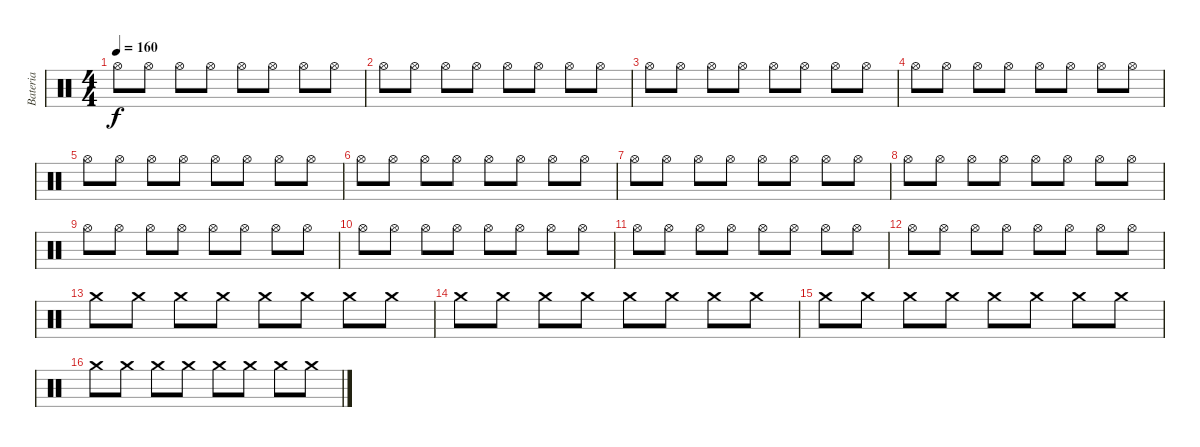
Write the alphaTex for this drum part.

\track ("Bateria" "Bateria") {instrument percussion}
\staff {score}
\articulation defaults
\ts (4 4)
\tempo 160
\clef neutral
\ks c "Hi-Hat (open)".8{dy f} "Hi-Hat (open)".8 "Hi-Hat (open)".8 "Hi-Hat (open)".8 "Hi-Hat (open)".8 "Hi-Hat (open)".8 "Hi-Hat (open)".8 "Hi-Hat (open)".8
|
"Hi-Hat (open)".8 "Hi-Hat (open)".8 "Hi-Hat (open)".8 "Hi-Hat (open)".8 "Hi-Hat (open)".8 "Hi-Hat (open)".8 "Hi-Hat (open)".8 "Hi-Hat (open)".8 |
"Hi-Hat (open)".8 "Hi-Hat (open)".8 "Hi-Hat (open)".8 "Hi-Hat (open)".8 "Hi-Hat (open)".8 "Hi-Hat (open)".8 "Hi-Hat (open)".8 "Hi-Hat (open)".8 |
"Hi-Hat (open)".8 "Hi-Hat (open)".8 "Hi-Hat (open)".8 "Hi-Hat (open)".8 "Hi-Hat (open)".8 "Hi-Hat (open)".8 "Hi-Hat (open)".8 "Hi-Hat (open)".8 |
"Hi-Hat (open)".8 "Hi-Hat (open)".8 "Hi-Hat (open)".8 "Hi-Hat (open)".8 "Hi-Hat (open)".8 "Hi-Hat (open)".8 "Hi-Hat (open)".8 "Hi-Hat (open)".8 |
"Hi-Hat (open)".8 "Hi-Hat (open)".8 "Hi-Hat (open)".8 "Hi-Hat (open)".8 "Hi-Hat (open)".8 "Hi-Hat (open)".8 "Hi-Hat (open)".8 "Hi-Hat (open)".8 |
"Hi-Hat (open)".8 "Hi-Hat (open)".8 "Hi-Hat (open)".8 "Hi-Hat (open)".8 "Hi-Hat (open)".8 "Hi-Hat (open)".8 "Hi-Hat (open)".8 "Hi-Hat (open)".8 |
"Hi-Hat (open)".8 "Hi-Hat (open)".8 "Hi-Hat (open)".8 "Hi-Hat (open)".8 "Hi-Hat (open)".8 "Hi-Hat (open)".8 "Hi-Hat (open)".8 "Hi-Hat (open)".8 |
"Hi-Hat (open)".8 "Hi-Hat (open)".8 "Hi-Hat (open)".8 "Hi-Hat (open)".8 "Hi-Hat (open)".8 "Hi-Hat (open)".8 "Hi-Hat (open)".8 "Hi-Hat (open)".8 |
"Hi-Hat (open)".8 "Hi-Hat (open)".8 "Hi-Hat (open)".8 "Hi-Hat (open)".8 "Hi-Hat (open)".8 "Hi-Hat (open)".8 "Hi-Hat (open)".8 "Hi-Hat (open)".8 |
"Hi-Hat (open)".8 "Hi-Hat (open)".8 "Hi-Hat (open)".8 "Hi-Hat (open)".8 "Hi-Hat (open)".8 "Hi-Hat (open)".8 "Hi-Hat (open)".8 "Hi-Hat (open)".8 |
"Hi-Hat (open)".8 "Hi-Hat (open)".8 "Hi-Hat (open)".8 "Hi-Hat (open)".8 "Hi-Hat (open)".8 "Hi-Hat (open)".8 "Hi-Hat (open)".8 "Hi-Hat (open)".8 |
"Crash medium (hit)".8 "Crash medium (hit)".8 "Crash medium (hit)".8 "Crash medium (hit)".8 "Crash medium (hit)".8 "Crash medium (hit)".8 "Crash medium (hit)".8 "Crash medium (hit)".8 |
"Crash medium (hit)".8 "Crash medium (hit)".8 "Crash medium (hit)".8 "Crash medium (hit)".8 "Crash medium (hit)".8 "Crash medium (hit)".8 "Crash medium (hit)".8 "Crash medium (hit)".8 |
"Crash medium (hit)".8 "Crash medium (hit)".8 "Crash medium (hit)".8 "Crash medium (hit)".8 "Crash medium (hit)".8 "Crash medium (hit)".8 "Crash medium (hit)".8 "Crash medium (hit)".8 |
"Crash medium (hit)".8 "Crash medium (hit)".8 "Crash medium (hit)".8 "Crash medium (hit)".8 "Crash medium (hit)".8 "Crash medium (hit)".8 "Crash medium (hit)".8 "Crash medium (hit)".8
